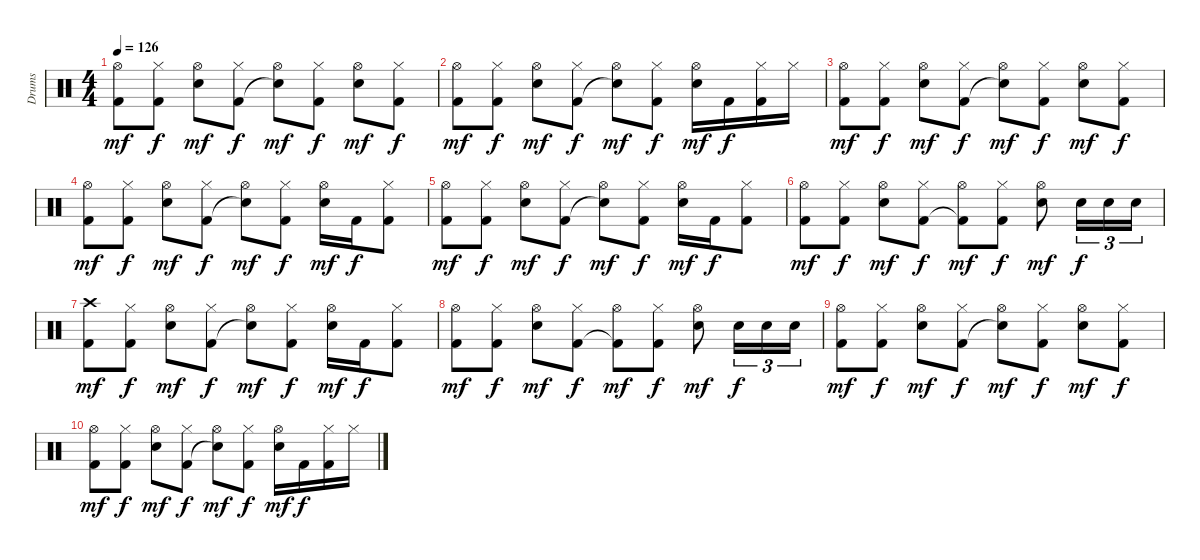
\track ("Drums" "Drums") {instrument percussion}
\staff {score}
\articulation defaults
\ts (4 4)
\tempo 126
\clef neutral
\ks c
("Hi-Hat (open)" "Kick (hit) 2").8{dy mf} ("Hi-Hat (closed)" "Kick (hit) 2").8{dy f} ("Hi-Hat (open)" "Electric Snare (hit)").8{dy mf} ("Hi-Hat (closed)" "Kick (hit) 2").8{dy f} ("Hi-Hat (open)" "Snare (hit)"{t}).8{dy mf} ("Hi-Hat (closed)" "Kick (hit) 2").8{dy f} ("Hi-Hat (open)" "Electric Snare (hit)").8{dy mf} ("Hi-Hat (closed)" "Kick (hit) 2").8{dy f} |
("Hi-Hat (open)" "Kick (hit) 2").8{dy mf} ("Hi-Hat (closed)" "Kick (hit) 2").8{dy f} ("Hi-Hat (open)" "Electric Snare (hit)").8{dy mf} ("Hi-Hat (closed)" "Kick (hit) 2").8{dy f} ("Hi-Hat (open)" "Snare (hit)"{t}).8{dy mf} ("Hi-Hat (closed)" "Kick (hit) 2").8{dy f} ("Hi-Hat (open)" "Electric Snare (hit)").16{dy mf} "Kick (hit) 2".16{dy f} ("Hi-Hat (closed)" "Kick (hit) 2").16 "Hi-Hat (closed)".16 |
("Hi-Hat (open)" "Kick (hit) 2").8{dy mf volume 10} ("Hi-Hat (closed)" "Kick (hit) 2").8{dy f} ("Hi-Hat (open)" "Electric Snare (hit)").8{dy mf} ("Hi-Hat (closed)" "Kick (hit) 2").8{dy f} ("Hi-Hat (open)" "Snare (hit)"{t}).8{dy mf} ("Hi-Hat (closed)" "Kick (hit) 2").8{dy f} ("Hi-Hat (open)" "Electric Snare (hit)").8{dy mf} ("Hi-Hat (closed)" "Kick (hit) 2").8{dy f} |
("Hi-Hat (open)" "Kick (hit) 2").8{dy mf} ("Hi-Hat (closed)" "Kick (hit) 2").8{dy f} ("Hi-Hat (open)" "Electric Snare (hit)").8{dy mf} ("Hi-Hat (closed)" "Kick (hit) 2").8{dy f} ("Hi-Hat (open)" "Snare (hit)"{t}).8{dy mf} ("Hi-Hat (closed)" "Kick (hit) 2").8{dy f} ("Hi-Hat (open)" "Electric Snare (hit)").16{dy mf} "Kick (hit) 2".16{dy f} ("Hi-Hat (closed)" "Kick (hit) 2").8 |
("Hi-Hat (open)" "Kick (hit) 2").8{dy mf volume 7} ("Hi-Hat (closed)" "Kick (hit) 2").8{dy f} ("Hi-Hat (open)" "Electric Snare (hit)").8{dy mf} ("Hi-Hat (closed)" "Kick (hit) 2").8{dy f} ("Hi-Hat (open)" "Snare (hit)"{t}).8{dy mf} ("Hi-Hat (closed)" "Kick (hit) 2").8{dy f} ("Hi-Hat (open)" "Electric Snare (hit)").16{dy mf} "Kick (hit) 2".16{dy f} ("Hi-Hat (closed)" "Kick (hit) 2").8 |
("Hi-Hat (open)" "Kick (hit) 2").8{dy mf} ("Hi-Hat (closed)" "Kick (hit) 2").8{dy f} ("Hi-Hat (open)" "Electric Snare (hit)").8{dy mf} ("Hi-Hat (closed)" "Kick (hit) 2").8{dy f} ("Hi-Hat (open)" "Kick (hit) 2"{t}).8{dy mf} ("Hi-Hat (closed)" "Kick (hit) 2").8{dy f} ("Hi-Hat (open)" "Electric Snare (hit)").8{dy mf} "Electric Snare (hit)".16{tu (3 2) dy f} "Electric Snare (hit)".16{tu (3 2)} "Electric Snare (hit)".16{tu (3 2)} |
("Crash high (hit)" "Kick (hit) 2").8{dy mf volume 4} ("Hi-Hat (closed)" "Kick (hit) 2").8{dy f} ("Hi-Hat (open)" "Electric Snare (hit)").8{dy mf} ("Hi-Hat (closed)" "Kick (hit) 2").8{dy f} ("Hi-Hat (open)" "Snare (hit)"{t}).8{dy mf} ("Hi-Hat (closed)" "Kick (hit) 2").8{dy f} ("Hi-Hat (open)" "Electric Snare (hit)").16{dy mf} "Kick (hit) 2".16{dy f} ("Hi-Hat (closed)" "Kick (hit) 2").8 |
("Hi-Hat (open)" "Kick (hit) 2").8{dy mf} ("Hi-Hat (closed)" "Kick (hit) 2").8{dy f} ("Hi-Hat (open)" "Electric Snare (hit)").8{dy mf} ("Hi-Hat (closed)" "Kick (hit) 2").8{dy f} ("Hi-Hat (open)" "Kick (hit) 2"{t}).8{dy mf} ("Hi-Hat (closed)" "Kick (hit) 2").8{dy f} ("Hi-Hat (open)" "Electric Snare (hit)").8{dy mf} "Electric Snare (hit)".16{tu (3 2) dy f} "Electric Snare (hit)".16{tu (3 2)} "Electric Snare (hit)".16{tu (3 2)} |
("Hi-Hat (open)" "Kick (hit) 2").8{dy mf volume 0} ("Hi-Hat (closed)" "Kick (hit) 2").8{dy f} ("Hi-Hat (open)" "Electric Snare (hit)").8{dy mf} ("Hi-Hat (closed)" "Kick (hit) 2").8{dy f} ("Hi-Hat (open)" "Snare (hit)"{t}).8{dy mf} ("Hi-Hat (closed)" "Kick (hit) 2").8{dy f} ("Hi-Hat (open)" "Electric Snare (hit)").8{dy mf} ("Hi-Hat (closed)" "Kick (hit) 2").8{dy f} |
("Hi-Hat (open)" "Kick (hit) 2").8{dy mf} ("Hi-Hat (closed)" "Kick (hit) 2").8{dy f} ("Hi-Hat (open)" "Electric Snare (hit)").8{dy mf} ("Hi-Hat (closed)" "Kick (hit) 2").8{dy f} ("Hi-Hat (open)" "Snare (hit)"{t}).8{dy mf} ("Hi-Hat (closed)" "Kick (hit) 2").8{dy f} ("Hi-Hat (open)" "Electric Snare (hit)").16{dy mf} "Kick (hit) 2".16{dy f} ("Hi-Hat (closed)" "Kick (hit) 2").16 "Hi-Hat (closed)".16
